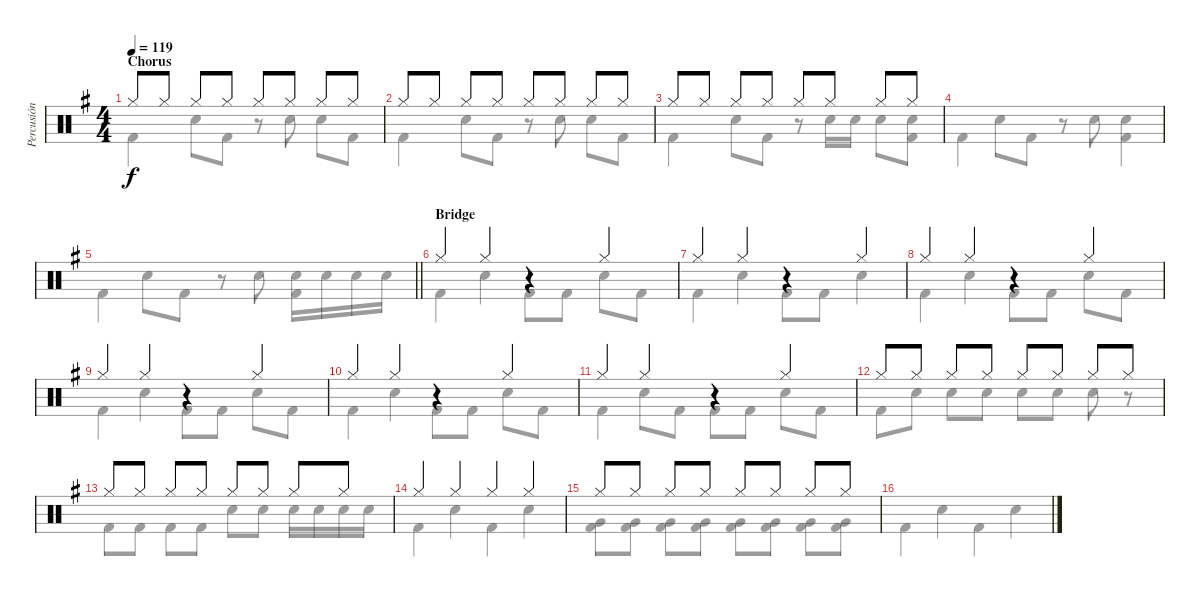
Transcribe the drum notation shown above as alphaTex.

\track ("Percusión" "Percusión") {instrument percussion}
\staff {score}
\articulation defaults
\voice
\ts (4 4)
\section ("" "Chorus")
\tempo 119
\clef neutral
\ks g "Hi-Hat (closed)".8{dy f} "Hi-Hat (closed)".8 "Hi-Hat (closed)".8 "Hi-Hat (closed)".8 "Hi-Hat (closed)".8 "Hi-Hat (closed)".8 "Hi-Hat (closed)".8 "Hi-Hat (closed)".8
|
"Hi-Hat (closed)".8 "Hi-Hat (closed)".8 "Hi-Hat (closed)".8 "Hi-Hat (closed)".8 "Hi-Hat (closed)".8 "Hi-Hat (closed)".8 "Hi-Hat (closed)".8 "Hi-Hat (closed)".8 |
"Hi-Hat (closed)".8 "Hi-Hat (closed)".8 "Hi-Hat (closed)".8 "Hi-Hat (closed)".8 "Hi-Hat (closed)".8 "Hi-Hat (closed)".8 "Hi-Hat (closed)".8 "Hi-Hat (closed)".8 |
|
\barLineRight lightlight
|
\section ("" "Bridge")
"Hi-Hat (closed)".4 "Hi-Hat (closed)".4 r.4 "Hi-Hat (closed)".4 |
"Hi-Hat (closed)".4 "Hi-Hat (closed)".4 r.4 "Hi-Hat (closed)".4 |
"Hi-Hat (closed)".4 "Hi-Hat (closed)".4 r.4 "Hi-Hat (closed)".4 |
"Hi-Hat (closed)".4 "Hi-Hat (closed)".4 r.4 "Hi-Hat (closed)".4 |
"Hi-Hat (closed)".4 "Hi-Hat (closed)".4 r.4 "Hi-Hat (closed)".4 |
"Hi-Hat (closed)".4 "Hi-Hat (closed)".4 r.4 "Hi-Hat (closed)".4 |
"Hi-Hat (closed)".8 "Hi-Hat (closed)".8 "Hi-Hat (closed)".8 "Hi-Hat (closed)".8 "Hi-Hat (closed)".8 "Hi-Hat (closed)".8 "Hi-Hat (closed)".8 "Hi-Hat (closed)".8 |
"Hi-Hat (closed)".8 "Hi-Hat (closed)".8 "Hi-Hat (closed)".8 "Hi-Hat (closed)".8 "Hi-Hat (closed)".8 "Hi-Hat (closed)".8 "Hi-Hat (closed)".8 "Hi-Hat (closed)".8 |
"Hi-Hat (closed)".4 "Hi-Hat (closed)".4 "Hi-Hat (closed)".4 "Hi-Hat (closed)".4 |
"Hi-Hat (closed)".8 "Hi-Hat (closed)".8 "Hi-Hat (closed)".8 "Hi-Hat (closed)".8 "Hi-Hat (closed)".8 "Hi-Hat (closed)".8 "Hi-Hat (closed)".8 "Hi-Hat (closed)".8 |
\voice
\clef neutral
\ottava regular
\simile none
\ks g "Kick (hit) 2".4{dy f} "Electric Snare (hit)".8 "Kick (hit) 2".8
r.8 "Electric Snare (hit)".8 "Electric Snare (hit)".8 "Kick (hit) 2".8 |
"Kick (hit) 2".4 "Electric Snare (hit)".8 "Kick (hit) 2".8 r.8 "Electric Snare (hit)".8 "Electric Snare (hit)".8 "Kick (hit) 2".8 |
"Kick (hit) 2".4 "Electric Snare (hit)".8 "Kick (hit) 2".8 r.8 "Electric Snare (hit)".16 "Electric Snare (hit)".16 "Electric Snare (hit)".8 ("Electric Snare (hit)" "Kick (hit) 2").8 |
"Kick (hit) 2".4 "Electric Snare (hit)".8 "Kick (hit) 2".8 r.8 "Electric Snare (hit)".8 ("Electric Snare (hit)" "Kick (hit) 2").4 |
\barLineRight lightlight "Kick (hit) 2".4 "Electric Snare (hit)".8 "Kick (hit) 2".8
r.8 "Electric Snare (hit)".8 ("Electric Snare (hit)" "Kick (hit) 2").16 "Electric Snare (hit)".16 "Electric Snare (hit)".16 "Electric Snare (hit)".16 |
"Kick (hit) 2".4 "Electric Snare (hit)".4 "Kick (hit) 2".8 "Kick (hit) 2".8 "Electric Snare (hit)".8 "Kick (hit) 2".8 |
"Kick (hit) 2".4 "Electric Snare (hit)".4 "Kick (hit) 2".8 "Kick (hit) 2".8 "Electric Snare (hit)".4 |
"Kick (hit) 2".4 "Electric Snare (hit)".4 "Kick (hit) 2".8 "Kick (hit) 2".8 "Electric Snare (hit)".8 "Kick (hit) 2".8 |
"Kick (hit) 2".4 "Electric Snare (hit)".4 "Kick (hit) 2".8 "Kick (hit) 2".8 "Electric Snare (hit)".8 "Kick (hit) 2".8 |
"Kick (hit) 2".4 "Electric Snare (hit)".4 "Kick (hit) 2".8 "Kick (hit) 2".8 "Electric Snare (hit)".8 "Kick (hit) 2".8 |
"Kick (hit) 2".4 "Electric Snare (hit)".8 "Kick (hit) 2".8 "Kick (hit) 2".8 "Kick (hit) 2".8 "Electric Snare (hit)".8 "Kick (hit) 2".8 |
"Kick (hit) 2".8 "Electric Snare (hit)".8 "Electric Snare (hit)".8 "Electric Snare (hit)".8 "Electric Snare (hit)".8 "Electric Snare (hit)".8 "Electric Snare (hit)".8 r.8 |
"Kick (hit) 2".8 "Kick (hit) 2".8 "Kick (hit) 2".8 "Kick (hit) 2".8 "Electric Snare (hit)".8 "Electric Snare (hit)".8 "Electric Snare (hit)".16 "Electric Snare (hit)".16 "Electric Snare (hit)".16 "Electric Snare (hit)".16 |
"Kick (hit) 2".4 "Electric Snare (hit)".4 "Kick (hit) 2".4 "Electric Snare (hit)".4 |
("Very Low Tom (hit)" "Kick (hit) 2").8 ("Very Low Tom (hit)" "Kick (hit) 2").8 ("Very Low Tom (hit)" "Kick (hit) 2").8 ("Very Low Tom (hit)" "Kick (hit) 2").8 ("Very Low Tom (hit)" "Kick (hit) 2").8 ("Very Low Tom (hit)" "Kick (hit) 2").8 ("Very Low Tom (hit)" "Kick (hit) 2").8 ("Very Low Tom (hit)" "Kick (hit) 2").8 |
"Kick (hit) 2".4 "Electric Snare (hit)".4 "Kick (hit) 2".4 "Electric Snare (hit)".4
